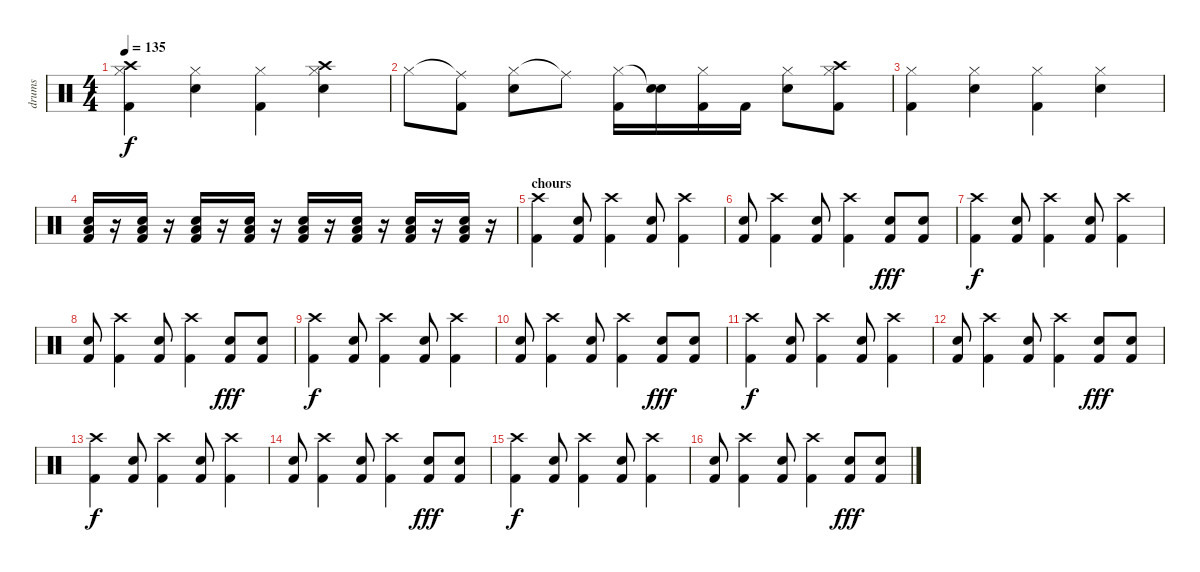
\track ("drums" "drums") {instrument percussion}
\staff {score}
\articulation defaults
\ts (4 4)
\tempo 135
\clef neutral
\ks c
("Crash high (hit)" "Hi-Hat (closed)" "Kick (hit) 2").4{dy f} ("Hi-Hat (closed)" "Electric Snare (hit)").4 ("Hi-Hat (closed)" "Kick (hit) 2").4 ("Crash high (hit)" "Hi-Hat (closed)" "Electric Snare (hit)").4 |
"Hi-Hat (closed)".8 ("Ride (middle)"{t} "Kick (hit) 2").8 ("Hi-Hat (closed)" "Electric Snare (hit)").8 "Ride (middle)"{t}.8 ("Hi-Hat (closed)" "Kick (hit) 2").16 ("Electric Snare (hit)"{t} "Electric Snare (hit)").16 ("Hi-Hat (closed)" "Kick (hit) 2").16 "Kick (hit) 2".16 ("Hi-Hat (closed)" "Electric Snare (hit)").8 ("Hi-Hat (closed)" "Kick (hit) 2" "Crash high (hit)").8 |
("Hi-Hat (closed)" "Kick (hit) 2").4 ("Hi-Hat (closed)" "Electric Snare (hit)").4 ("Hi-Hat (closed)" "Kick (hit) 2").4 ("Hi-Hat (closed)" "Electric Snare (hit)").4 |
("Low Tom (hit)" "Electric Snare (hit)" "Kick (hit) 2").16 r.16 ("Low Tom (hit)" "Electric Snare (hit)" "Kick (hit) 2").16 r.16 ("Low Tom (hit)" "Electric Snare (hit)" "Kick (hit) 2").16 r.16 ("Low Tom (hit)" "Electric Snare (hit)" "Kick (hit) 2").16 r.16 ("Low Tom (hit)" "Electric Snare (hit)" "Kick (hit) 2").16 r.16 ("Low Tom (hit)" "Electric Snare (hit)" "Kick (hit) 2").16 r.16 ("Low Tom (hit)" "Electric Snare (hit)" "Kick (hit) 2").16 r.16 ("Low Tom (hit)" "Electric Snare (hit)" "Kick (hit) 2").16 r.16 |
\section ("" "chours")
("Crash high (hit)" "Kick (hit) 2").4 ("Electric Snare (hit)" "Kick (hit) 2").8 ("Crash high (hit)" "Kick (hit) 2").4 ("Electric Snare (hit)" "Kick (hit) 2").8 ("Crash high (hit)" "Kick (hit) 2").4 |
("Electric Snare (hit)" "Kick (hit) 2").8 ("Crash high (hit)" "Kick (hit) 2").4 ("Electric Snare (hit)" "Kick (hit) 2").8 ("Crash high (hit)" "Kick (hit) 2").4 ("Electric Snare (hit)" "Kick (hit) 2").8{dy fff} ("Electric Snare (hit)" "Kick (hit) 2").8 |
("Crash high (hit)" "Kick (hit) 2").4{dy f} ("Electric Snare (hit)" "Kick (hit) 2").8 ("Crash high (hit)" "Kick (hit) 2").4 ("Electric Snare (hit)" "Kick (hit) 2").8 ("Crash high (hit)" "Kick (hit) 2").4 |
("Electric Snare (hit)" "Kick (hit) 2").8 ("Crash high (hit)" "Kick (hit) 2").4 ("Electric Snare (hit)" "Kick (hit) 2").8 ("Crash high (hit)" "Kick (hit) 2").4 ("Electric Snare (hit)" "Kick (hit) 2").8{dy fff} ("Electric Snare (hit)" "Kick (hit) 2").8 |
("Crash high (hit)" "Kick (hit) 2").4{dy f} ("Electric Snare (hit)" "Kick (hit) 2").8 ("Crash high (hit)" "Kick (hit) 2").4 ("Electric Snare (hit)" "Kick (hit) 2").8 ("Crash high (hit)" "Kick (hit) 2").4 |
("Electric Snare (hit)" "Kick (hit) 2").8 ("Crash high (hit)" "Kick (hit) 2").4 ("Electric Snare (hit)" "Kick (hit) 2").8 ("Crash high (hit)" "Kick (hit) 2").4 ("Electric Snare (hit)" "Kick (hit) 2").8{dy fff} ("Electric Snare (hit)" "Kick (hit) 2").8 |
("Crash high (hit)" "Kick (hit) 2").4{dy f} ("Electric Snare (hit)" "Kick (hit) 2").8 ("Crash high (hit)" "Kick (hit) 2").4 ("Electric Snare (hit)" "Kick (hit) 2").8 ("Crash high (hit)" "Kick (hit) 2").4 |
("Electric Snare (hit)" "Kick (hit) 2").8 ("Crash high (hit)" "Kick (hit) 2").4 ("Electric Snare (hit)" "Kick (hit) 2").8 ("Crash high (hit)" "Kick (hit) 2").4 ("Electric Snare (hit)" "Kick (hit) 2").8{dy fff} ("Electric Snare (hit)" "Kick (hit) 2").8 |
("Crash high (hit)" "Kick (hit) 2").4{dy f} ("Electric Snare (hit)" "Kick (hit) 2").8 ("Crash high (hit)" "Kick (hit) 2").4 ("Electric Snare (hit)" "Kick (hit) 2").8 ("Crash high (hit)" "Kick (hit) 2").4 |
("Electric Snare (hit)" "Kick (hit) 2").8 ("Crash high (hit)" "Kick (hit) 2").4 ("Electric Snare (hit)" "Kick (hit) 2").8 ("Crash high (hit)" "Kick (hit) 2").4 ("Electric Snare (hit)" "Kick (hit) 2").8{dy fff} ("Electric Snare (hit)" "Kick (hit) 2").8 |
("Crash high (hit)" "Kick (hit) 2").4{dy f} ("Electric Snare (hit)" "Kick (hit) 2").8 ("Crash high (hit)" "Kick (hit) 2").4 ("Electric Snare (hit)" "Kick (hit) 2").8 ("Crash high (hit)" "Kick (hit) 2").4 |
("Electric Snare (hit)" "Kick (hit) 2").8 ("Crash high (hit)" "Kick (hit) 2").4 ("Electric Snare (hit)" "Kick (hit) 2").8 ("Crash high (hit)" "Kick (hit) 2").4 ("Electric Snare (hit)" "Kick (hit) 2").8{dy fff} ("Electric Snare (hit)" "Kick (hit) 2").8
